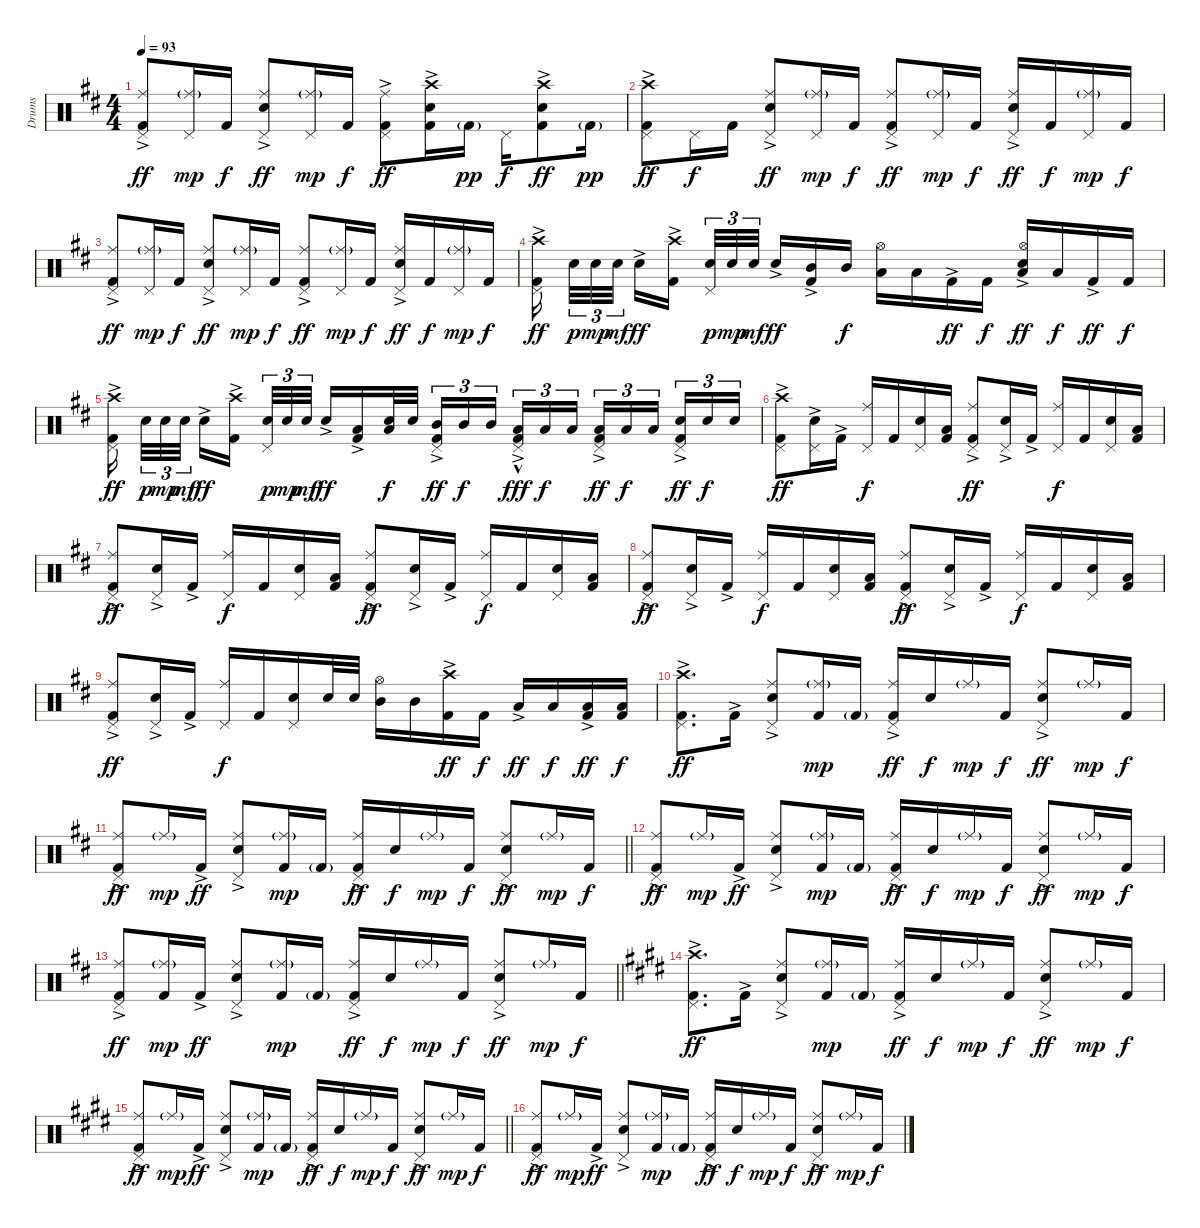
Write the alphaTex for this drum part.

\track ("Drums" "Drums") {instrument percussion}
\staff {score}
\articulation defaults
\ts (4 4)
\tempo 93
\clef neutral
\ks d
("Pedal Hi-Hat (hit)" "Ride (middle)" "Kick (hit) 2"{ac}).8{dy ff} ("Pedal Hi-Hat (hit)" "Ride (middle)"{g}).16{dy mp} "Kick (hit) 2".16{dy f} ("Pedal Hi-Hat (hit)" "Ride (middle)" "Snare (hit) 2"{ac}).8{dy ff} ("Pedal Hi-Hat (hit)" "Ride (middle)"{g}).16{dy mp} "Kick (hit) 2".16{dy f} ("Pedal Hi-Hat (hit)" "Ride (middle)" "Kick (hit) 2"{ac}).8{dy ff} ("Crash high (hit)" "Snare (hit) 2" "Kick (hit) 2"{ac}).16 "Kick (hit) 2"{g}.16{dy pp} "Pedal Hi-Hat (hit)".16{dy f} ("Crash high (hit)" "Snare (hit) 2" "Kick (hit) 2"{ac}).8{dy ff} "Kick (hit) 2"{g}.16{dy pp} |
("Pedal Hi-Hat (hit)" "Crash high (hit)" "Kick (hit) 2"{ac}).8{dy ff} "Pedal Hi-Hat (hit)".16{dy f} "Kick (hit) 2".16 ("Pedal Hi-Hat (hit)" "Ride (middle)" "Snare (hit) 2"{ac}).8{dy ff} ("Pedal Hi-Hat (hit)" "Ride (middle)"{g}).16{dy mp} "Kick (hit) 2".16{dy f} ("Pedal Hi-Hat (hit)" "Ride (middle)" "Kick (hit) 2"{ac}).8{dy ff} ("Pedal Hi-Hat (hit)" "Ride (middle)"{g}).16{dy mp} "Kick (hit) 2".16{dy f} ("Pedal Hi-Hat (hit)" "Ride (middle)" "Snare (hit) 2"{ac}).16{dy ff} "Kick (hit) 2".16{dy f} ("Pedal Hi-Hat (hit)" "Ride (middle)"{g}).16{dy mp} "Kick (hit) 2".16{dy f} |
("Pedal Hi-Hat (hit)" "Ride (middle)" "Kick (hit) 2"{ac}).8{dy ff} ("Pedal Hi-Hat (hit)" "Ride (middle)"{g}).16{dy mp} "Kick (hit) 2".16{dy f} ("Pedal Hi-Hat (hit)" "Ride (middle)" "Snare (hit) 2"{ac}).8{dy ff} ("Pedal Hi-Hat (hit)" "Ride (middle)"{g}).16{dy mp} "Kick (hit) 2".16{dy f} ("Pedal Hi-Hat (hit)" "Ride (middle)" "Kick (hit) 2"{ac}).8{dy ff} ("Pedal Hi-Hat (hit)" "Ride (middle)"{g}).16{dy mp} "Kick (hit) 2".16{dy f} ("Pedal Hi-Hat (hit)" "Ride (middle)" "Snare (hit) 2"{ac}).16{dy ff} "Kick (hit) 2".16{dy f} ("Pedal Hi-Hat (hit)" "Ride (middle)"{g}).16{dy mp} "Kick (hit) 2".16{dy f} |
("Crash high (hit)" "Pedal Hi-Hat (hit)" "Kick (hit) 2"{ac}).16{dy ff beam splitsecondary} "Snare (hit) 2".32{tu (3 2) dy p} "Snare (hit) 2".32{tu (3 2) dy mp} "Snare (hit) 2".32{tu (3 2) dy mf beam splitsecondary} "Snare (hit) 2"{ac}.16{dy ff} ("Crash high (hit)" "Kick (hit) 2"{ac}).16 ("Pedal Hi-Hat (hit)" "Snare (hit) 2").32{tu (3 2) dy p} "Snare (hit) 2".32{tu (3 2) dy mp} "Snare (hit) 2".32{tu (3 2) dy mf beam splitsecondary} "Snare (hit) 2"{ac}.16{dy ff} ("Mid Tom (hit)" "Kick (hit) 2"{ac}).16 "Mid Tom (hit)".16{dy f} ("Hi-Hat (open)" "Low Tom (hit)").16 "Low Tom (hit)".16 "Kick (hit) 2"{ac}.16{dy ff} "Kick (hit) 2".16{dy f} ("Hi-Hat (open)" "Snare (hit) 2"{ac} "Low Floor Tom (hit)").16{dy ff} "Low Floor Tom (hit)".16{dy f} "Kick (hit) 2"{ac}.16{dy ff} "Kick (hit) 2".16{dy f} |
("Crash high (hit)" "Pedal Hi-Hat (hit)" "Kick (hit) 2"{ac}).16{dy ff beam splitsecondary} "Snare (hit) 2".32{tu (3 2) dy p} "Snare (hit) 2".32{tu (3 2) dy mp} "Snare (hit) 2".32{tu (3 2) dy mf beam splitsecondary} "Snare (hit) 2"{ac}.16{dy ff} ("Crash high (hit)" "Kick (hit) 2"{ac}).16 ("Pedal Hi-Hat (hit)" "Snare (hit) 2").32{tu (3 2) dy p} "Snare (hit) 2".32{tu (3 2) dy mp} "Snare (hit) 2".32{tu (3 2) dy mf beam splitsecondary} "Snare (hit) 2"{ac}.16{dy ff} ("Low Floor Tom (hit)" "Kick (hit) 2"{ac}).16 ("Snare (hit) 2" "Low Floor Tom (hit)").32{dy f} "Snare (hit) 2".32 ("Pedal Hi-Hat (hit)" "Mid Tom (hit)"{ac} "Kick (hit) 2"{ac}).16{tu (3 2) dy ff} "Mid Tom (hit)".16{tu (3 2) dy f} "Mid Tom (hit)".16{tu (3 2) beam splitsecondary} ("Pedal Hi-Hat (hit)" "Low Tom (hit)"{ac} "Kick (hit) 2"{hac}).16{tu (3 2) dy fff} "Low Tom (hit)".16{tu (3 2) dy f} "Low Tom (hit)".16{tu (3 2)} ("Pedal Hi-Hat (hit)" "Low Floor Tom (hit)"{ac} "Kick (hit) 2"{ac}).16{tu (3 2) dy ff} "Low Floor Tom (hit)".16{tu (3 2) dy f} "Low Floor Tom (hit)".16{tu (3 2) beam splitsecondary} ("Pedal Hi-Hat (hit)" "Snare (hit) 2"{ac} "Kick (hit) 2"{ac}).16{tu (3 2) dy ff} "Snare (hit) 2".16{tu (3 2) dy f} "Snare (hit) 2".16{tu (3 2)} |
("Crash high (hit)" "Pedal Hi-Hat (hit)" "Kick (hit) 2"{ac}).8{dy ff} ("Pedal Hi-Hat (hit)" "Snare (hit) 2"{ac}).16 "Kick (hit) 2"{ac}.16 ("Ride (middle)" "Pedal Hi-Hat (hit)").16{dy f} "Kick (hit) 2".16 ("Pedal Hi-Hat (hit)" "Snare (hit) 2").16 ("Low Tom (hit)" "Kick (hit) 2").16 ("Ride (middle)" "Pedal Hi-Hat (hit)" "Kick (hit) 2"{ac}).8{dy ff} ("Pedal Hi-Hat (hit)" "Snare (hit) 2"{ac}).16 "Kick (hit) 2"{ac}.16 ("Ride (middle)" "Pedal Hi-Hat (hit)").16{dy f} "Kick (hit) 2".16 ("Pedal Hi-Hat (hit)" "Snare (hit) 2").16 ("Low Floor Tom (hit)" "Kick (hit) 2").16 |
("Ride (middle)" "Pedal Hi-Hat (hit)" "Kick (hit) 2"{ac}).8{dy ff} ("Pedal Hi-Hat (hit)" "Snare (hit) 2"{ac}).16 "Kick (hit) 2"{ac}.16 ("Ride (middle)" "Pedal Hi-Hat (hit)").16{dy f} "Kick (hit) 2".16 ("Pedal Hi-Hat (hit)" "Snare (hit) 2").16 ("Low Floor Tom (hit)" "Kick (hit) 2").16 ("Ride (middle)" "Pedal Hi-Hat (hit)" "Kick (hit) 2"{ac}).8{dy ff} ("Pedal Hi-Hat (hit)" "Snare (hit) 2"{ac}).16 "Kick (hit) 2"{ac}.16 ("Ride (middle)" "Pedal Hi-Hat (hit)").16{dy f} "Kick (hit) 2".16 ("Pedal Hi-Hat (hit)" "Snare (hit) 2").16 ("Low Tom (hit)" "Kick (hit) 2").16 |
("Ride (middle)" "Pedal Hi-Hat (hit)" "Kick (hit) 2"{ac}).8{dy ff} ("Pedal Hi-Hat (hit)" "Snare (hit) 2"{ac}).16 "Kick (hit) 2"{ac}.16 ("Ride (middle)" "Pedal Hi-Hat (hit)").16{dy f} "Kick (hit) 2".16 ("Pedal Hi-Hat (hit)" "Snare (hit) 2").16 ("Low Tom (hit)" "Kick (hit) 2").16 ("Ride (middle)" "Pedal Hi-Hat (hit)" "Kick (hit) 2"{ac}).8{dy ff} ("Pedal Hi-Hat (hit)" "Snare (hit) 2"{ac}).16 "Kick (hit) 2"{ac}.16 ("Ride (middle)" "Pedal Hi-Hat (hit)").16{dy f} "Kick (hit) 2".16 ("Pedal Hi-Hat (hit)" "Snare (hit) 2").16 ("Low Floor Tom (hit)" "Kick (hit) 2").16 |
("Ride (middle)" "Pedal Hi-Hat (hit)" "Kick (hit) 2"{ac}).8{dy ff} ("Pedal Hi-Hat (hit)" "Snare (hit) 2"{ac}).16 "Kick (hit) 2"{ac}.16 ("Ride (middle)" "Pedal Hi-Hat (hit)").16{dy f} "Kick (hit) 2".16 ("Pedal Hi-Hat (hit)" "Snare (hit) 2").16 "Snare (hit) 2".32 "Snare (hit) 2".32 ("Hi-Hat (open)" "Mid Tom (hit)").16 "Mid Tom (hit)".16 ("Crash high (hit)" "Kick (hit) 2"{ac}).16{dy ff} "Kick (hit) 2".16{dy f} "Low Tom (hit)"{ac}.16{dy ff} "Low Tom (hit)".16{dy f} ("Low Floor Tom (hit)"{ac} "Kick (hit) 2"{ac}).16{dy ff} ("Low Floor Tom (hit)" "Kick (hit) 2").16{dy f} |
("Pedal Hi-Hat (hit)" "Crash high (hit)" "Kick (hit) 2"{ac}).8{d dy ff} "Kick (hit) 2"{ac}.16 ("Pedal Hi-Hat (hit)" "Ride (middle)" "Snare (hit) 2"{ac}).8 ("Ride (middle)"{g} "Kick (hit) 2").16{dy mp} "Kick (hit) 2"{g}.16 ("Pedal Hi-Hat (hit)" "Ride (middle)" "Kick (hit) 2"{ac}).16{dy ff} "Snare (hit) 2".16{dy f} "Ride (middle)"{g}.16{dy mp} "Kick (hit) 2".16{dy f} ("Pedal Hi-Hat (hit)" "Ride (middle)" "Snare (hit) 2"{ac}).8{dy ff} "Ride (middle)"{g}.16{dy mp} "Kick (hit) 2".16{dy f} |
\barLineRight lightlight
("Pedal Hi-Hat (hit)" "Ride (middle)" "Kick (hit) 2"{ac}).8{dy ff} "Ride (middle)"{g}.16{dy mp} "Kick (hit) 2"{ac}.16{dy ff} ("Pedal Hi-Hat (hit)" "Ride (middle)" "Snare (hit) 2"{ac}).8 ("Ride (middle)"{g} "Kick (hit) 2").16{dy mp} "Kick (hit) 2"{g}.16 ("Pedal Hi-Hat (hit)" "Ride (middle)" "Kick (hit) 2"{ac}).16{dy ff} "Snare (hit) 2".16{dy f} "Ride (middle)"{g}.16{dy mp} "Kick (hit) 2".16{dy f} ("Pedal Hi-Hat (hit)" "Ride (middle)" "Snare (hit) 2"{ac}).8{dy ff} "Ride (middle)"{g}.16{dy mp} "Kick (hit) 2".16{dy f} |
("Pedal Hi-Hat (hit)" "Ride (middle)" "Kick (hit) 2"{ac}).8{dy ff} "Ride (middle)"{g}.16{dy mp} "Kick (hit) 2"{ac}.16{dy ff} ("Pedal Hi-Hat (hit)" "Ride (middle)" "Snare (hit) 2"{ac}).8 ("Ride (middle)"{g} "Kick (hit) 2").16{dy mp} "Kick (hit) 2"{g}.16 ("Pedal Hi-Hat (hit)" "Ride (middle)" "Kick (hit) 2"{ac}).16{dy ff} "Snare (hit) 2".16{dy f} "Ride (middle)"{g}.16{dy mp} "Kick (hit) 2".16{dy f} ("Pedal Hi-Hat (hit)" "Ride (middle)" "Snare (hit) 2"{ac}).8{dy ff} "Ride (middle)"{g}.16{dy mp} "Kick (hit) 2".16{dy f} |
\barLineRight lightlight
("Pedal Hi-Hat (hit)" "Ride (middle)" "Kick (hit) 2"{ac}).8{dy ff} ("Ride (middle)"{g} "Kick (hit) 2").16{dy mp} "Kick (hit) 2"{ac}.16{dy ff} ("Pedal Hi-Hat (hit)" "Ride (middle)" "Snare (hit) 2"{ac}).8 ("Ride (middle)"{g} "Kick (hit) 2").16{dy mp} "Kick (hit) 2"{g}.16 ("Pedal Hi-Hat (hit)" "Ride (middle)" "Kick (hit) 2"{ac}).16{dy ff} "Snare (hit) 2".16{dy f} "Ride (middle)"{g}.16{dy mp} "Kick (hit) 2".16{dy f} ("Pedal Hi-Hat (hit)" "Ride (middle)" "Snare (hit) 2"{ac}).8{dy ff} "Ride (middle)"{g}.16{dy mp} "Kick (hit) 2".16{dy f} |
\ks e
("Pedal Hi-Hat (hit)" "Crash high (hit)" "Kick (hit) 2"{ac}).8{d dy ff} "Kick (hit) 2"{ac}.16 ("Pedal Hi-Hat (hit)" "Ride (middle)" "Snare (hit) 2"{ac}).8 ("Ride (middle)"{g} "Kick (hit) 2").16{dy mp} "Kick (hit) 2"{g}.16 ("Pedal Hi-Hat (hit)" "Ride (middle)" "Kick (hit) 2"{ac}).16{dy ff} "Snare (hit) 2".16{dy f} "Ride (middle)"{g}.16{dy mp} "Kick (hit) 2".16{dy f} ("Pedal Hi-Hat (hit)" "Ride (middle)" "Snare (hit) 2"{ac}).8{dy ff} "Ride (middle)"{g}.16{dy mp} "Kick (hit) 2".16{dy f} |
\barLineRight lightlight
("Pedal Hi-Hat (hit)" "Ride (middle)" "Kick (hit) 2"{ac}).8{dy ff} "Ride (middle)"{g}.16{dy mp} "Kick (hit) 2"{ac}.16{dy ff} ("Pedal Hi-Hat (hit)" "Ride (middle)" "Snare (hit) 2"{ac}).8 ("Ride (middle)"{g} "Kick (hit) 2").16{dy mp} "Kick (hit) 2"{g}.16 ("Pedal Hi-Hat (hit)" "Ride (middle)" "Kick (hit) 2"{ac}).16{dy ff} "Snare (hit) 2".16{dy f} "Ride (middle)"{g}.16{dy mp} "Kick (hit) 2".16{dy f} ("Pedal Hi-Hat (hit)" "Ride (middle)" "Snare (hit) 2"{ac}).8{dy ff} "Ride (middle)"{g}.16{dy mp} "Kick (hit) 2".16{dy f} |
("Pedal Hi-Hat (hit)" "Ride (middle)" "Kick (hit) 2"{ac}).8{dy ff} "Ride (middle)"{g}.16{dy mp} "Kick (hit) 2"{ac}.16{dy ff} ("Pedal Hi-Hat (hit)" "Ride (middle)" "Snare (hit) 2"{ac}).8 ("Ride (middle)"{g} "Kick (hit) 2").16{dy mp} "Kick (hit) 2"{g}.16 ("Pedal Hi-Hat (hit)" "Ride (middle)" "Kick (hit) 2"{ac}).16{dy ff} "Snare (hit) 2".16{dy f} "Ride (middle)"{g}.16{dy mp} "Kick (hit) 2".16{dy f} ("Pedal Hi-Hat (hit)" "Ride (middle)" "Snare (hit) 2"{ac}).8{dy ff} "Ride (middle)"{g}.16{dy mp} "Kick (hit) 2".16{dy f}
